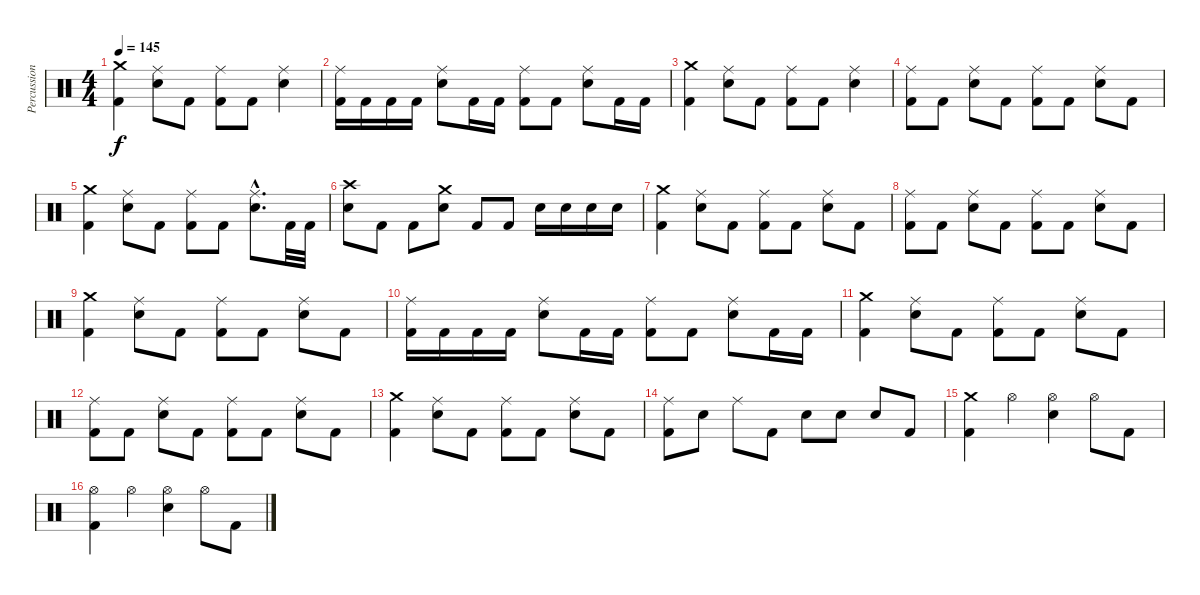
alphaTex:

\track ("Percussion" "Percussion") {instrument percussion}
\staff {score}
\articulation defaults
\ts (4 4)
\tempo 145
\clef neutral
\ks c
("Crash medium (hit)" "Kick (hit) 2").4{dy f} ("Ride (middle)" "Snare (hit) 2").8 "Kick (hit) 2".8 ("Ride (middle)" "Kick (hit) 2").8 "Kick (hit) 2".8 ("Ride (middle)" "Snare (hit) 2").4 |
("Ride (middle)" "Kick (hit) 2").16 "Kick (hit) 2".16 "Kick (hit) 2".16 "Kick (hit) 2".16 ("Ride (middle)" "Snare (hit) 2").8 "Kick (hit) 2".16 "Kick (hit) 2".16 ("Ride (middle)" "Kick (hit) 2").8 "Kick (hit) 2".8 ("Ride (middle)" "Snare (hit) 2").8 "Kick (hit) 2".16 "Kick (hit) 2".16 |
("Crash medium (hit)" "Kick (hit) 2").4 ("Ride (middle)" "Snare (hit) 2").8 "Kick (hit) 2".8 ("Ride (middle)" "Kick (hit) 2").8 "Kick (hit) 2".8 ("Ride (middle)" "Snare (hit) 2").4 |
("Ride (middle)" "Kick (hit) 2").8 "Kick (hit) 2".8 ("Ride (middle)" "Snare (hit) 2").8 "Kick (hit) 2".8 ("Ride (middle)" "Kick (hit) 2").8 "Kick (hit) 2".8 ("Ride (middle)" "Snare (hit) 2").8 "Kick (hit) 2".8 |
("Crash medium (hit)" "Kick (hit) 2").4 ("Ride (middle)" "Snare (hit) 2").8 "Kick (hit) 2".8 ("Ride (middle)" "Kick (hit) 2").8 "Kick (hit) 2".8 ("Ride (middle)"{hac} "Snare (hit) 2"{hac}).8{d} "Kick (hit) 2".32 "Kick (hit) 2".32 |
("Crash high (hit)" "Snare (hit) 2").8 "Kick (hit) 2".8 "Kick (hit) 2".8 ("Crash medium (hit)" "Snare (hit) 2").8 "Kick (hit) 2".8 "Kick (hit) 2".8 "Snare (hit) 2".16 "Snare (hit) 2".16 "Snare (hit) 2".16 "Snare (hit) 2".16 |
("Crash medium (hit)" "Kick (hit) 2").4 ("Ride (middle)" "Snare (hit) 2").8 "Kick (hit) 2".8 ("Ride (middle)" "Kick (hit) 2").8 "Kick (hit) 2".8 ("Ride (middle)" "Snare (hit) 2").8 "Kick (hit) 2".8 |
("Ride (middle)" "Kick (hit) 2").8 "Kick (hit) 2".8 ("Ride (middle)" "Snare (hit) 2").8 "Kick (hit) 2".8 ("Ride (middle)" "Kick (hit) 2").8 "Kick (hit) 2".8 ("Ride (middle)" "Snare (hit) 2").8 "Kick (hit) 2".8 |
("Crash medium (hit)" "Kick (hit) 2").4 ("Ride (middle)" "Snare (hit) 2").8 "Kick (hit) 2".8 ("Ride (middle)" "Kick (hit) 2").8 "Kick (hit) 2".8 ("Ride (middle)" "Snare (hit) 2").8 "Kick (hit) 2".8 |
("Ride (middle)" "Kick (hit) 2").16 "Kick (hit) 2".16 "Kick (hit) 2".16 "Kick (hit) 2".16 ("Ride (middle)" "Snare (hit) 2").8 "Kick (hit) 2".16 "Kick (hit) 2".16 ("Ride (middle)" "Kick (hit) 2").8 "Kick (hit) 2".8 ("Ride (middle)" "Snare (hit) 2").8 "Kick (hit) 2".16 "Kick (hit) 2".16 |
("Crash medium (hit)" "Kick (hit) 2").4 ("Ride (middle)" "Snare (hit) 2").8 "Kick (hit) 2".8 ("Ride (middle)" "Kick (hit) 2").8 "Kick (hit) 2".8 ("Ride (middle)" "Snare (hit) 2").8 "Kick (hit) 2".8 |
("Ride (middle)" "Kick (hit) 2").8 "Kick (hit) 2".8 ("Ride (middle)" "Snare (hit) 2").8 "Kick (hit) 2".8 ("Ride (middle)" "Kick (hit) 2").8 "Kick (hit) 2".8 ("Ride (middle)" "Snare (hit) 2").8 "Kick (hit) 2".8 |
("Crash medium (hit)" "Kick (hit) 2").4 ("Ride (middle)" "Snare (hit) 2").8 "Kick (hit) 2".8 ("Ride (middle)" "Kick (hit) 2").8 "Kick (hit) 2".8 ("Ride (middle)" "Snare (hit) 2").8 "Kick (hit) 2".8 |
("Ride (middle)" "Kick (hit) 2").8 "Snare (hit) 2".8 "Ride (middle)".8 "Kick (hit) 2".8 "Snare (hit) 2".8 "Snare (hit) 2".8 "Snare (hit) 2".8 "Kick (hit) 2".8 |
("Crash medium (hit)" "Kick (hit) 2").4 "Hi-Hat (open)".4 ("Hi-Hat (open)" "Snare (hit) 2").4 "Hi-Hat (open)".8 "Kick (hit) 2".8 |
("Hi-Hat (open)" "Kick (hit) 2").4 "Hi-Hat (open)".4 ("Hi-Hat (open)" "Snare (hit) 2").4 "Hi-Hat (open)".8 "Kick (hit) 2".8
